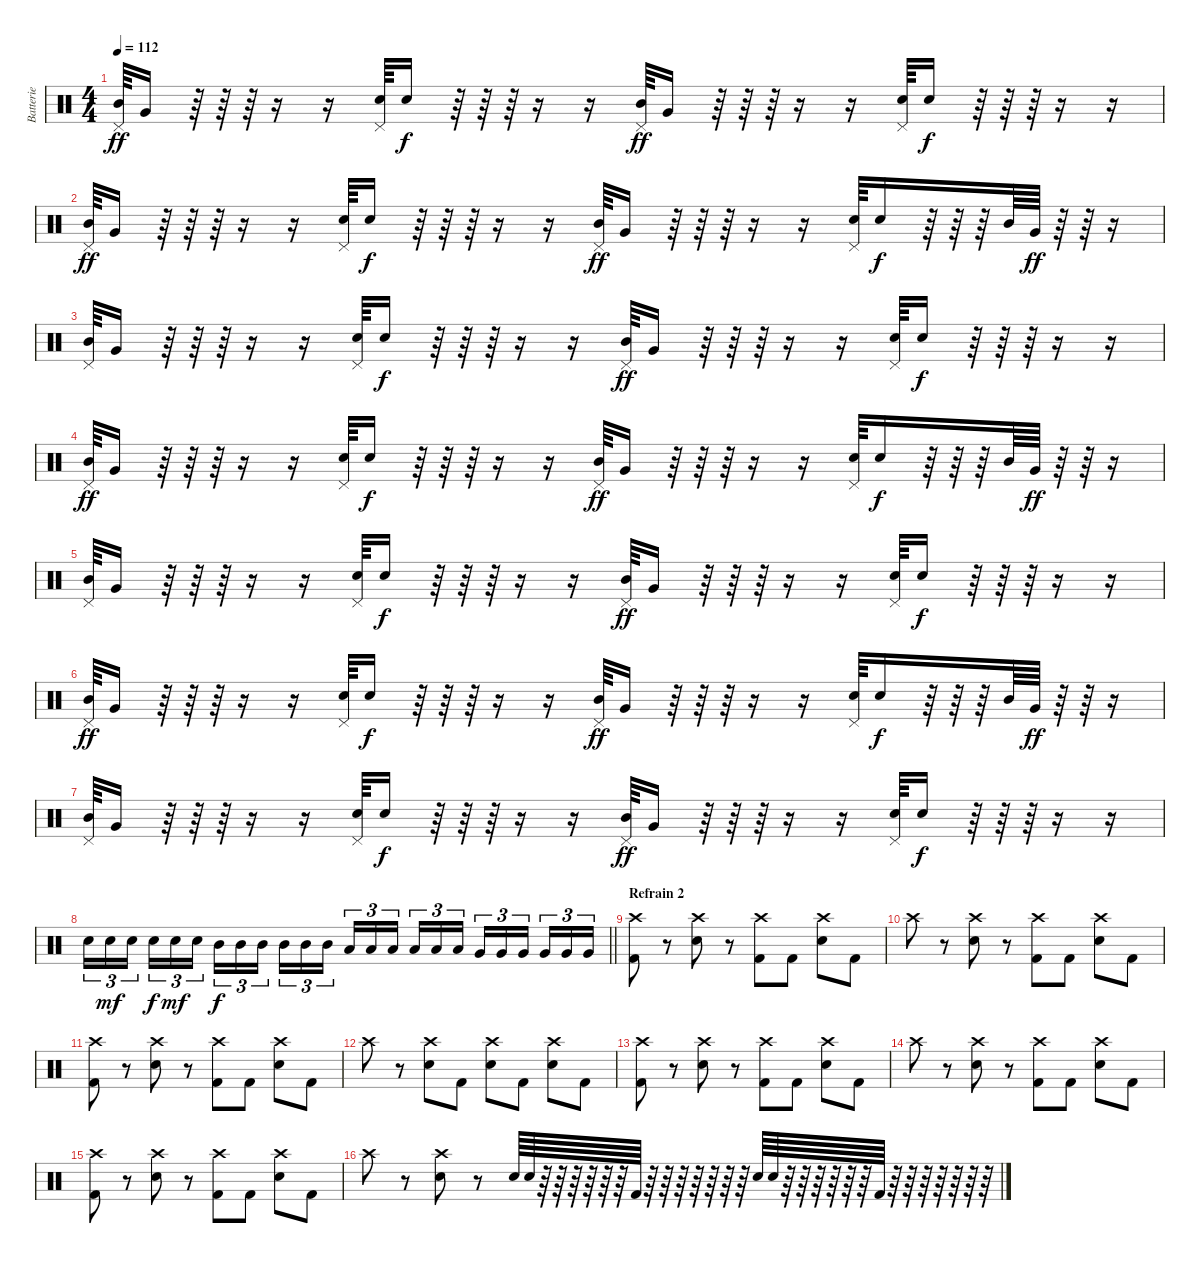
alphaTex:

\track ("Batterie" "Batterie") {instrument percussion}
\staff {score}
\articulation defaults
\ts (4 4)
\tempo 112
\clef neutral
\ks c
("Mid Tom (hit)" "Pedal Hi-Hat (hit)").64{dy ff} "Very Low Tom (hit)".16 r.64 r.64 r.64 r.16 r.16 ("Electric Snare (hit)" "Pedal Hi-Hat (hit)").64 "Electric Snare (hit)".16{dy f} r.64 r.64 r.64 r.16 r.16 ("Mid Tom (hit)" "Pedal Hi-Hat (hit)").64{dy ff} "Very Low Tom (hit)".16 r.64 r.64 r.64 r.16 r.16 ("Electric Snare (hit)" "Pedal Hi-Hat (hit)").64 "Electric Snare (hit)".16{dy f} r.64 r.64 r.64 r.16 r.16 |
("Mid Tom (hit)" "Pedal Hi-Hat (hit)").64{dy ff} "Very Low Tom (hit)".16 r.64 r.64 r.64 r.16 r.16 ("Electric Snare (hit)" "Pedal Hi-Hat (hit)").64 "Electric Snare (hit)".16{dy f} r.64 r.64 r.64 r.16 r.16 ("Mid Tom (hit)" "Pedal Hi-Hat (hit)").64{dy ff} "Very Low Tom (hit)".16 r.64 r.64 r.64 r.16 r.16 ("Electric Snare (hit)" "Pedal Hi-Hat (hit)").64 "Electric Snare (hit)".16{dy f} r.64 r.64 r.64 "Mid Tom (hit)".64 "Very Low Tom (hit)".64{dy ff} r.64 r.64 r.16 |
("Mid Tom (hit)" "Pedal Hi-Hat (hit)").64 "Very Low Tom (hit)".16 r.64 r.64 r.64 r.16 r.16 ("Electric Snare (hit)" "Pedal Hi-Hat (hit)").64 "Electric Snare (hit)".16{dy f} r.64 r.64 r.64 r.16 r.16 ("Mid Tom (hit)" "Pedal Hi-Hat (hit)").64{dy ff} "Very Low Tom (hit)".16 r.64 r.64 r.64 r.16 r.16 ("Electric Snare (hit)" "Pedal Hi-Hat (hit)").64 "Electric Snare (hit)".16{dy f} r.64 r.64 r.64 r.16 r.16 |
("Mid Tom (hit)" "Pedal Hi-Hat (hit)").64{dy ff} "Very Low Tom (hit)".16 r.64 r.64 r.64 r.16 r.16 ("Electric Snare (hit)" "Pedal Hi-Hat (hit)").64 "Electric Snare (hit)".16{dy f} r.64 r.64 r.64 r.16 r.16 ("Mid Tom (hit)" "Pedal Hi-Hat (hit)").64{dy ff} "Very Low Tom (hit)".16 r.64 r.64 r.64 r.16 r.16 ("Electric Snare (hit)" "Pedal Hi-Hat (hit)").64 "Electric Snare (hit)".16{dy f} r.64 r.64 r.64 "Mid Tom (hit)".64 "Very Low Tom (hit)".64{dy ff} r.64 r.64 r.16 |
("Mid Tom (hit)" "Pedal Hi-Hat (hit)").64 "Very Low Tom (hit)".16 r.64 r.64 r.64 r.16 r.16 ("Electric Snare (hit)" "Pedal Hi-Hat (hit)").64 "Electric Snare (hit)".16{dy f} r.64 r.64 r.64 r.16 r.16 ("Mid Tom (hit)" "Pedal Hi-Hat (hit)").64{dy ff} "Very Low Tom (hit)".16 r.64 r.64 r.64 r.16 r.16 ("Electric Snare (hit)" "Pedal Hi-Hat (hit)").64 "Electric Snare (hit)".16{dy f} r.64 r.64 r.64 r.16 r.16 |
("Mid Tom (hit)" "Pedal Hi-Hat (hit)").64{dy ff} "Very Low Tom (hit)".16 r.64 r.64 r.64 r.16 r.16 ("Electric Snare (hit)" "Pedal Hi-Hat (hit)").64 "Electric Snare (hit)".16{dy f} r.64 r.64 r.64 r.16 r.16 ("Mid Tom (hit)" "Pedal Hi-Hat (hit)").64{dy ff} "Very Low Tom (hit)".16 r.64 r.64 r.64 r.16 r.16 ("Electric Snare (hit)" "Pedal Hi-Hat (hit)").64 "Electric Snare (hit)".16{dy f} r.64 r.64 r.64 "Mid Tom (hit)".64 "Very Low Tom (hit)".64{dy ff} r.64 r.64 r.16 |
("Mid Tom (hit)" "Pedal Hi-Hat (hit)").64 "Very Low Tom (hit)".16 r.64 r.64 r.64 r.16 r.16 ("Electric Snare (hit)" "Pedal Hi-Hat (hit)").64 "Electric Snare (hit)".16{dy f} r.64 r.64 r.64 r.16 r.16 ("Mid Tom (hit)" "Pedal Hi-Hat (hit)").64{dy ff} "Very Low Tom (hit)".16 r.64 r.64 r.64 r.16 r.16 ("Electric Snare (hit)" "Pedal Hi-Hat (hit)").64 "Electric Snare (hit)".16{dy f} r.64 r.64 r.64 r.16 r.16 |
\barLineRight lightlight "Electric Snare (hit)".16{tu (3 2)} "Electric Snare (hit)".16{tu (3 2) dy mf} "Electric Snare (hit)".16{tu (3 2) beam splitsecondary} "Electric Snare (hit)".16{tu (3 2) dy f} "Electric Snare (hit)".16{tu (3 2) dy mf} "Electric Snare (hit)".16{tu (3 2)} "Mid Tom (hit)".16{tu (3 2) dy f} "Mid Tom (hit)".16{tu (3 2)} "Mid Tom (hit)".16{tu (3 2) beam splitsecondary} "Mid Tom (hit)".16{tu (3 2)} "Mid Tom (hit)".16{tu (3 2)} "Mid Tom (hit)".16{tu (3 2)} "Low Tom (hit)".16{tu (3 2)} "Low Tom (hit)".16{tu (3 2)} "Low Tom (hit)".16{tu (3 2) beam splitsecondary} "Low Tom (hit)".16{tu (3 2)} "Low Tom (hit)".16{tu (3 2)} "Low Tom (hit)".16{tu (3 2)} "Very Low Tom (hit)".16{tu (3 2)} "Very Low Tom (hit)".16{tu (3 2)} "Very Low Tom (hit)".16{tu (3 2) beam splitsecondary} "Very Low Tom (hit)".16{tu (3 2)} "Very Low Tom (hit)".16{tu (3 2)} "Very Low Tom (hit)".16{tu (3 2)}
|
\section ("" "Refrain 2")
("Kick (hit) 2" "Crash high (hit)").8 r.8 ("Electric Snare (hit)" "Crash high (hit)").8 r.8 ("Kick (hit) 2" "Crash high (hit)").8 "Kick (hit) 2".8 ("Electric Snare (hit)" "Crash high (hit)").8 "Kick (hit) 2".8 |
"Crash high (hit)".8 r.8 ("Electric Snare (hit)" "Crash high (hit)").8 r.8 ("Kick (hit) 2" "Crash high (hit)").8 "Kick (hit) 2".8 ("Electric Snare (hit)" "Crash high (hit)").8 "Kick (hit) 2".8 |
("Kick (hit) 2" "Crash high (hit)").8 r.8 ("Electric Snare (hit)" "Crash high (hit)").8 r.8 ("Kick (hit) 2" "Crash high (hit)").8 "Kick (hit) 2".8 ("Electric Snare (hit)" "Crash high (hit)").8 "Kick (hit) 2".8 |
"Crash high (hit)".8 r.8 ("Electric Snare (hit)" "Crash high (hit)").8 "Kick (hit) 2".8 ("Electric Snare (hit)" "Crash high (hit)").8 "Kick (hit) 2".8 ("Electric Snare (hit)" "Crash high (hit)").8 "Kick (hit) 2".8 |
("Kick (hit) 2" "Crash high (hit)").8 r.8 ("Electric Snare (hit)" "Crash high (hit)").8 r.8 ("Kick (hit) 2" "Crash high (hit)").8 "Kick (hit) 2".8 ("Electric Snare (hit)" "Crash high (hit)").8 "Kick (hit) 2".8 |
"Crash high (hit)".8 r.8 ("Electric Snare (hit)" "Crash high (hit)").8 r.8 ("Kick (hit) 2" "Crash high (hit)").8 "Kick (hit) 2".8 ("Electric Snare (hit)" "Crash high (hit)").8 "Kick (hit) 2".8 |
("Kick (hit) 2" "Crash high (hit)").8 r.8 ("Electric Snare (hit)" "Crash high (hit)").8 r.8 ("Kick (hit) 2" "Crash high (hit)").8 "Kick (hit) 2".8 ("Electric Snare (hit)" "Crash high (hit)").8 "Kick (hit) 2".8 |
"Crash high (hit)".8 r.8 ("Electric Snare (hit)" "Crash high (hit)").8 r.8 "Electric Snare (hit)".64 "Electric Snare (hit)".64 r.64 r.64 r.64 r.64 r.64 r.64 "Kick (hit) 2".64 r.64 r.64 r.64 r.64 r.64 r.64 r.64 "Electric Snare (hit)".64 "Electric Snare (hit)".64 r.64 r.64 r.64 r.64 r.64 r.64 "Kick (hit) 2".64 r.64 r.64 r.64 r.64 r.64 r.64 r.64
